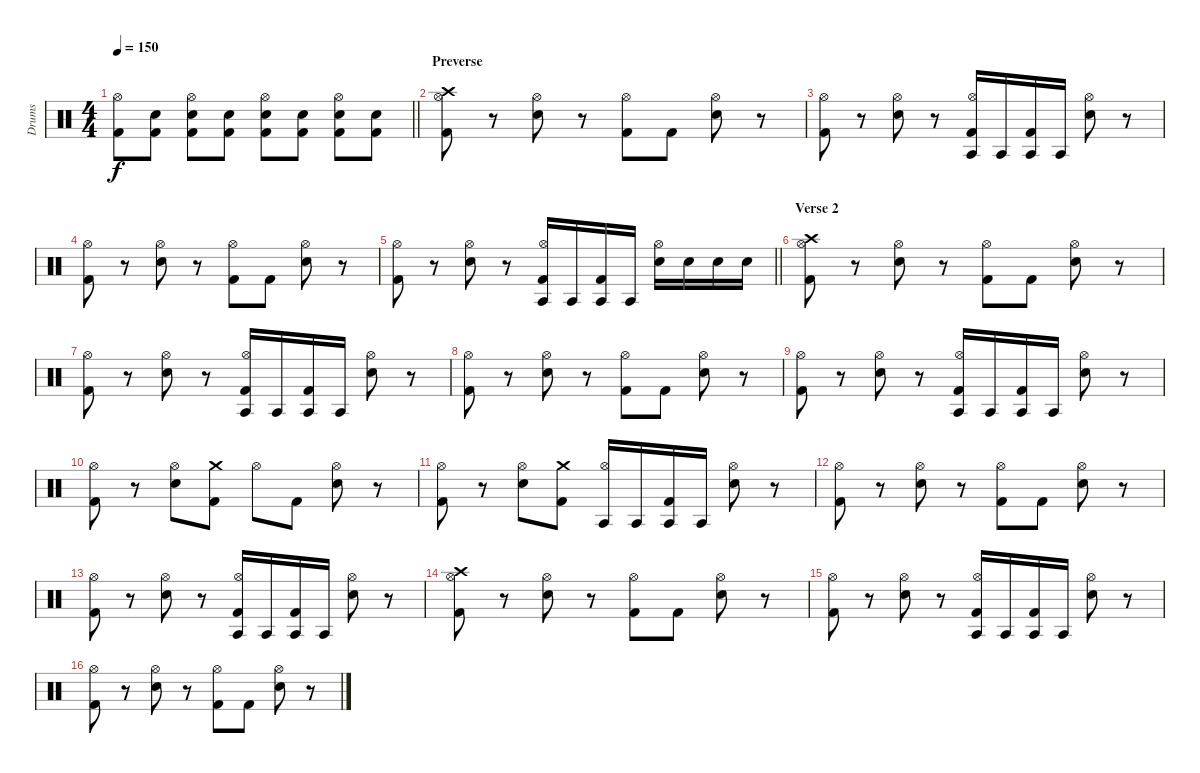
\track ("Drums" "Drums") {instrument percussion}
\staff {score}
\articulation defaults
\ts (4 4)
\tempo 150
\clef neutral
\barLineRight lightlight
\ks c
("Hi-Hat (open)" "Kick (hit) 2").8{dy f} ("Snare (hit) 2" "Kick (hit) 2").8 ("Hi-Hat (open)" "Snare (hit) 2" "Kick (hit) 2").8 ("Snare (hit) 2" "Kick (hit) 2").8 ("Hi-Hat (open)" "Snare (hit) 2" "Kick (hit) 2").8 ("Snare (hit) 2" "Kick (hit) 2").8 ("Hi-Hat (open)" "Snare (hit) 2" "Kick (hit) 2").8 ("Snare (hit) 2" "Kick (hit) 2").8 |
\section ("" "Preverse")
("Crash high (hit)" "Hi-Hat (open)" "Kick (hit) 2").8 r.8 ("Hi-Hat (open)" "Snare (hit) 2").8 r.8 ("Hi-Hat (open)" "Kick (hit) 2").8 "Kick (hit) 2".8 ("Hi-Hat (open)" "Snare (hit) 2").8 r.8 |
("Hi-Hat (open)" "Kick (hit) 2").8 r.8 ("Hi-Hat (open)" "Snare (hit) 2").8 r.8 ("Agogo tow (hit)" "Hi-Hat (open)" "Kick (hit) 2").16 "Agogo tow (hit)".16 ("Agogo tow (hit)" "Kick (hit) 2").16 "Agogo tow (hit)".16 ("Hi-Hat (open)" "Snare (hit) 2").8 r.8 |
("Hi-Hat (open)" "Kick (hit) 2").8 r.8 ("Hi-Hat (open)" "Snare (hit) 2").8 r.8 ("Hi-Hat (open)" "Kick (hit) 2").8 "Kick (hit) 2".8 ("Hi-Hat (open)" "Snare (hit) 2").8 r.8 |
\barLineRight lightlight
("Hi-Hat (open)" "Kick (hit) 2").8 r.8 ("Hi-Hat (open)" "Snare (hit) 2").8 r.8 ("Agogo tow (hit)" "Hi-Hat (open)" "Kick (hit) 2").16 "Agogo tow (hit)".16 ("Agogo tow (hit)" "Kick (hit) 2").16 "Agogo tow (hit)".16 ("Hi-Hat (open)" "Snare (hit) 2").16 "Snare (hit) 2".16 "Snare (hit) 2".16 "Snare (hit) 2".16 |
\section ("" "Verse 2")
("Crash high (hit)" "Hi-Hat (open)" "Kick (hit) 2").8 r.8 ("Hi-Hat (open)" "Snare (hit) 2").8 r.8 ("Hi-Hat (open)" "Kick (hit) 2").8 "Kick (hit) 2".8 ("Hi-Hat (open)" "Snare (hit) 2").8 r.8 |
("Hi-Hat (open)" "Kick (hit) 2").8 r.8 ("Hi-Hat (open)" "Snare (hit) 2").8 r.8 ("Agogo tow (hit)" "Hi-Hat (open)" "Kick (hit) 2").16 "Agogo tow (hit)".16 ("Agogo tow (hit)" "Kick (hit) 2").16 "Agogo tow (hit)".16 ("Hi-Hat (open)" "Snare (hit) 2").8 r.8 |
("Hi-Hat (open)" "Kick (hit) 2").8 r.8 ("Hi-Hat (open)" "Snare (hit) 2").8 r.8 ("Hi-Hat (open)" "Kick (hit) 2").8 "Kick (hit) 2".8 ("Hi-Hat (open)" "Snare (hit) 2").8 r.8 |
("Hi-Hat (open)" "Kick (hit) 2").8 r.8 ("Hi-Hat (open)" "Snare (hit) 2").8 r.8 ("Agogo tow (hit)" "Hi-Hat (open)" "Kick (hit) 2").16 "Agogo tow (hit)".16 ("Agogo tow (hit)" "Kick (hit) 2").16 "Agogo tow (hit)".16 ("Hi-Hat (open)" "Snare (hit) 2").8 r.8 |
("Hi-Hat (open)" "Kick (hit) 2").8 r.8 ("Hi-Hat (open)" "Snare (hit) 2").8 ("Crash medium (hit)" "Kick (hit) 2").8 "Hi-Hat (open)".8 "Kick (hit) 2".8 ("Hi-Hat (open)" "Snare (hit) 2").8 r.8 |
("Hi-Hat (open)" "Kick (hit) 2").8 r.8 ("Hi-Hat (open)" "Snare (hit) 2").8 ("Crash medium (hit)" "Kick (hit) 2").8 ("Agogo tow (hit)" "Hi-Hat (open)").16 "Agogo tow (hit)".16 ("Agogo tow (hit)" "Kick (hit) 2").16 "Agogo tow (hit)".16 ("Hi-Hat (open)" "Snare (hit) 2").8 r.8 |
("Hi-Hat (open)" "Kick (hit) 2").8 r.8 ("Hi-Hat (open)" "Snare (hit) 2").8 r.8 ("Hi-Hat (open)" "Kick (hit) 2").8 "Kick (hit) 2".8 ("Hi-Hat (open)" "Snare (hit) 2").8 r.8 |
("Hi-Hat (open)" "Kick (hit) 2").8 r.8 ("Hi-Hat (open)" "Snare (hit) 2").8 r.8 ("Agogo tow (hit)" "Hi-Hat (open)" "Kick (hit) 2").16 "Agogo tow (hit)".16 ("Agogo tow (hit)" "Kick (hit) 2").16 "Agogo tow (hit)".16 ("Hi-Hat (open)" "Snare (hit) 2").8 r.8 |
("Crash high (hit)" "Hi-Hat (open)" "Kick (hit) 2").8 r.8 ("Hi-Hat (open)" "Snare (hit) 2").8 r.8 ("Hi-Hat (open)" "Kick (hit) 2").8 "Kick (hit) 2".8 ("Hi-Hat (open)" "Snare (hit) 2").8 r.8 |
("Hi-Hat (open)" "Kick (hit) 2").8 r.8 ("Hi-Hat (open)" "Snare (hit) 2").8 r.8 ("Agogo tow (hit)" "Hi-Hat (open)" "Kick (hit) 2").16 "Agogo tow (hit)".16 ("Agogo tow (hit)" "Kick (hit) 2").16 "Agogo tow (hit)".16 ("Hi-Hat (open)" "Snare (hit) 2").8 r.8 |
("Hi-Hat (open)" "Kick (hit) 2").8 r.8 ("Hi-Hat (open)" "Snare (hit) 2").8 r.8 ("Hi-Hat (open)" "Kick (hit) 2").8 "Kick (hit) 2".8 ("Hi-Hat (open)" "Snare (hit) 2").8 r.8
